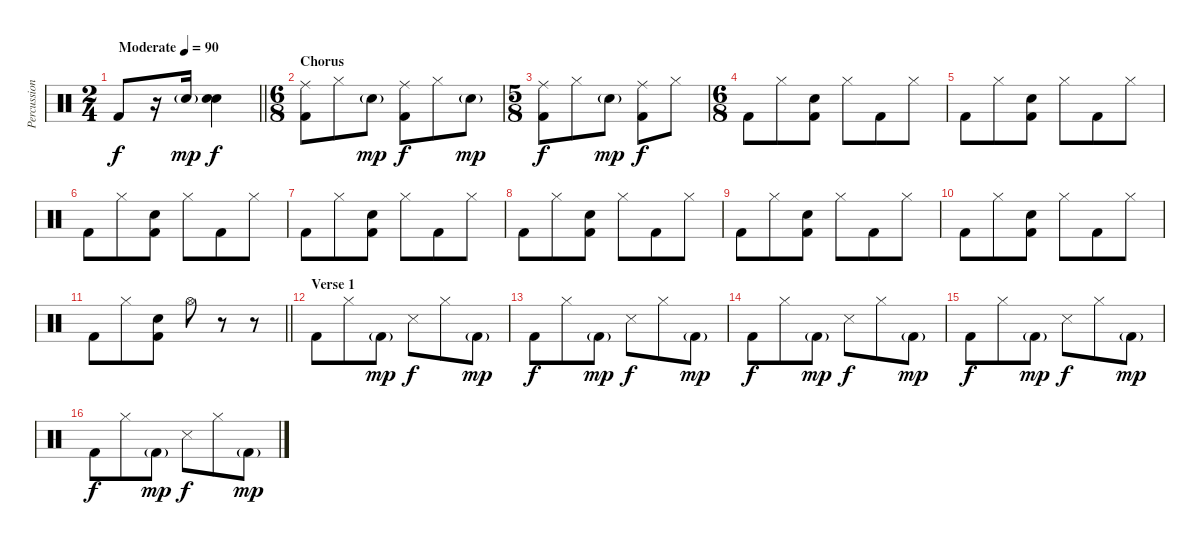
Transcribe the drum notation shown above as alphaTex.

\track ("Percussion" "Percussion") {instrument percussion}
\staff {score}
\articulation defaults
\ts (2 4)
\tempo (90 "Moderate")
\clef neutral
\barLineRight lightlight
\ks c "Kick (hit) 2".8{dy f}
r.16 "Snare (hit) 2"{g}.16{dy mp} ("Snare (hit) 2" "Snare (hit) 2").4{dy f} |
\ts (6 8)
\section ("" "Chorus")
("Ride (middle)" "Kick (hit) 2").8 "Hi-Hat (closed)".8 "Snare (hit) 2"{g}.8{dy mp} ("Ride (middle)" "Kick (hit) 2").8{dy f} "Hi-Hat (closed)".8 "Snare (hit) 2"{g}.8{dy mp} |
\ts (5 8)
("Ride (middle)" "Kick (hit) 2").8{dy f} "Hi-Hat (closed)".8 "Snare (hit) 2"{g}.8{dy mp} ("Ride (middle)" "Kick (hit) 2").8{dy f} "Hi-Hat (closed)".8 |
\ts (6 8)
"Kick (hit) 2".8 "Hi-Hat (closed)".8 ("Snare (hit) 2" "Kick (hit) 2").8 "Hi-Hat (closed)".8 "Kick (hit) 2".8 "Hi-Hat (closed)".8 |
"Kick (hit) 2".8 "Hi-Hat (closed)".8 ("Snare (hit) 2" "Kick (hit) 2").8 "Hi-Hat (closed)".8 "Kick (hit) 2".8 "Hi-Hat (closed)".8 |
"Kick (hit) 2".8 "Hi-Hat (closed)".8 ("Snare (hit) 2" "Kick (hit) 2").8 "Hi-Hat (closed)".8 "Kick (hit) 2".8 "Hi-Hat (closed)".8 |
"Kick (hit) 2".8 "Hi-Hat (closed)".8 ("Snare (hit) 2" "Kick (hit) 2").8 "Hi-Hat (closed)".8 "Kick (hit) 2".8 "Hi-Hat (closed)".8 |
"Kick (hit) 2".8 "Hi-Hat (closed)".8 ("Snare (hit) 2" "Kick (hit) 2").8 "Hi-Hat (closed)".8 "Kick (hit) 2".8 "Hi-Hat (closed)".8 |
"Kick (hit) 2".8 "Hi-Hat (closed)".8 ("Snare (hit) 2" "Kick (hit) 2").8 "Hi-Hat (closed)".8 "Kick (hit) 2".8 "Hi-Hat (closed)".8 |
"Kick (hit) 2".8 "Hi-Hat (closed)".8 ("Snare (hit) 2" "Kick (hit) 2").8 "Hi-Hat (closed)".8 "Kick (hit) 2".8 "Hi-Hat (closed)".8 |
\barLineRight lightlight "Kick (hit) 2".8 "Hi-Hat (closed)".8
("Snare (hit) 2" "Kick (hit) 2").8 "Hi-Hat (open)".8 r.8 r.8 |
\section ("" "Verse 1")
"Kick (hit) 2".8 "Hi-Hat (closed)".8 "Kick (hit) 2"{g}.8{dy mp} "Snare (side stick) 3".8{dy f} "Hi-Hat (closed)".8 "Kick (hit) 2"{g}.8{dy mp} |
"Kick (hit) 2".8{dy f} "Hi-Hat (closed)".8 "Kick (hit) 2"{g}.8{dy mp} "Snare (side stick) 3".8{dy f} "Hi-Hat (closed)".8 "Kick (hit) 2"{g}.8{dy mp} |
"Kick (hit) 2".8{dy f} "Hi-Hat (closed)".8 "Kick (hit) 2"{g}.8{dy mp} "Snare (side stick) 3".8{dy f} "Hi-Hat (closed)".8 "Kick (hit) 2"{g}.8{dy mp} |
"Kick (hit) 2".8{dy f} "Hi-Hat (closed)".8 "Kick (hit) 2"{g}.8{dy mp} "Snare (side stick) 3".8{dy f} "Hi-Hat (closed)".8 "Kick (hit) 2"{g}.8{dy mp} |
"Kick (hit) 2".8{dy f} "Hi-Hat (closed)".8 "Kick (hit) 2"{g}.8{dy mp} "Snare (side stick) 3".8{dy f} "Hi-Hat (closed)".8 "Kick (hit) 2"{g}.8{dy mp}
